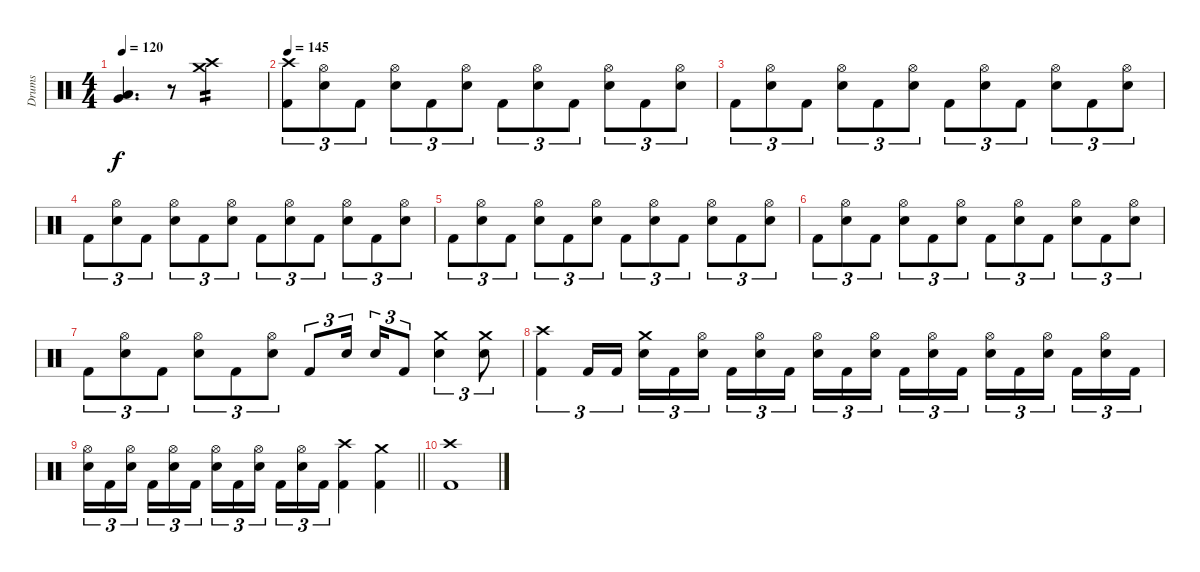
\track ("Drums" "Drums") {instrument percussion}
\staff {score}
\articulation defaults
\ts (4 4)
\tempo 120
\clef neutral
\ks c
("Low Tom (hit)" "Very Low Tom (hit)").4{d dy f} r.8{volume 0} ("Crash high (hit)" "Crash medium (hit)").2{tp 2 volume 15} |
\tempo 145
("Crash high (hit)" "Kick (hit) 2").8{tu (3 2)} ("Hi-Hat (open)" "Electric Snare (hit)").8{tu (3 2)} "Kick (hit) 2".8{tu (3 2)} ("Hi-Hat (open)" "Electric Snare (hit)").8{tu (3 2)} "Kick (hit) 2".8{tu (3 2)} ("Hi-Hat (open)" "Electric Snare (hit)").8{tu (3 2)} "Kick (hit) 2".8{tu (3 2)} ("Hi-Hat (open)" "Electric Snare (hit)").8{tu (3 2)} "Kick (hit) 2".8{tu (3 2)} ("Hi-Hat (open)" "Electric Snare (hit)").8{tu (3 2)} "Kick (hit) 2".8{tu (3 2)} ("Hi-Hat (open)" "Electric Snare (hit)").8{tu (3 2)} |
"Kick (hit) 2".8{tu (3 2)} ("Hi-Hat (open)" "Electric Snare (hit)").8{tu (3 2)} "Kick (hit) 2".8{tu (3 2)} ("Hi-Hat (open)" "Electric Snare (hit)").8{tu (3 2)} "Kick (hit) 2".8{tu (3 2)} ("Hi-Hat (open)" "Electric Snare (hit)").8{tu (3 2)} "Kick (hit) 2".8{tu (3 2)} ("Hi-Hat (open)" "Electric Snare (hit)").8{tu (3 2)} "Kick (hit) 2".8{tu (3 2)} ("Hi-Hat (open)" "Electric Snare (hit)").8{tu (3 2)} "Kick (hit) 2".8{tu (3 2)} ("Hi-Hat (open)" "Electric Snare (hit)").8{tu (3 2)} |
"Kick (hit) 2".8{tu (3 2)} ("Hi-Hat (open)" "Electric Snare (hit)").8{tu (3 2)} "Kick (hit) 2".8{tu (3 2)} ("Hi-Hat (open)" "Electric Snare (hit)").8{tu (3 2)} "Kick (hit) 2".8{tu (3 2)} ("Hi-Hat (open)" "Electric Snare (hit)").8{tu (3 2)} "Kick (hit) 2".8{tu (3 2)} ("Hi-Hat (open)" "Electric Snare (hit)").8{tu (3 2)} "Kick (hit) 2".8{tu (3 2)} ("Hi-Hat (open)" "Electric Snare (hit)").8{tu (3 2)} "Kick (hit) 2".8{tu (3 2)} ("Hi-Hat (open)" "Electric Snare (hit)").8{tu (3 2)} |
"Kick (hit) 2".8{tu (3 2)} ("Hi-Hat (open)" "Electric Snare (hit)").8{tu (3 2)} "Kick (hit) 2".8{tu (3 2)} ("Hi-Hat (open)" "Electric Snare (hit)").8{tu (3 2)} "Kick (hit) 2".8{tu (3 2)} ("Hi-Hat (open)" "Electric Snare (hit)").8{tu (3 2)} "Kick (hit) 2".8{tu (3 2)} ("Hi-Hat (open)" "Electric Snare (hit)").8{tu (3 2)} "Kick (hit) 2".8{tu (3 2)} ("Hi-Hat (open)" "Electric Snare (hit)").8{tu (3 2)} "Kick (hit) 2".8{tu (3 2)} ("Hi-Hat (open)" "Electric Snare (hit)").8{tu (3 2)} |
"Kick (hit) 2".8{tu (3 2)} ("Hi-Hat (open)" "Electric Snare (hit)").8{tu (3 2)} "Kick (hit) 2".8{tu (3 2)} ("Hi-Hat (open)" "Electric Snare (hit)").8{tu (3 2)} "Kick (hit) 2".8{tu (3 2)} ("Hi-Hat (open)" "Electric Snare (hit)").8{tu (3 2)} "Kick (hit) 2".8{tu (3 2)} ("Hi-Hat (open)" "Electric Snare (hit)").8{tu (3 2)} "Kick (hit) 2".8{tu (3 2)} ("Hi-Hat (open)" "Electric Snare (hit)").8{tu (3 2)} "Kick (hit) 2".8{tu (3 2)} ("Hi-Hat (open)" "Electric Snare (hit)").8{tu (3 2)} |
"Kick (hit) 2".8{tu (3 2)} ("Hi-Hat (open)" "Electric Snare (hit)").8{tu (3 2)} "Kick (hit) 2".8{tu (3 2)} ("Hi-Hat (open)" "Electric Snare (hit)").8{tu (3 2)} "Kick (hit) 2".8{tu (3 2)} ("Hi-Hat (open)" "Electric Snare (hit)").8{tu (3 2)} "Kick (hit) 2".8{tu (3 2)} "Electric Snare (hit)".16{tu (3 2) beam splitsecondary} "Electric Snare (hit)".16{tu (3 2)} "Kick (hit) 2".8{tu (3 2)} ("Crash medium (hit)" "Electric Snare (hit)").4{tu (3 2)} ("Crash medium (hit)" "Electric Snare (hit)").8{tu (3 2)} |
("Crash high (hit)" "Kick (hit) 2").4{tu (3 2)} "Kick (hit) 2".16{tu (3 2)} "Kick (hit) 2".16{tu (3 2)} ("Crash medium (hit)" "Electric Snare (hit)").16{tu (3 2)} "Kick (hit) 2".16{tu (3 2)} ("Hi-Hat (open)" "Electric Snare (hit)").16{tu (3 2) beam splitsecondary} "Kick (hit) 2".16{tu (3 2)} ("Hi-Hat (open)" "Electric Snare (hit)").16{tu (3 2)} "Kick (hit) 2".16{tu (3 2)} ("Hi-Hat (open)" "Electric Snare (hit)").16{tu (3 2)} "Kick (hit) 2".16{tu (3 2)} ("Hi-Hat (open)" "Electric Snare (hit)").16{tu (3 2) beam splitsecondary} "Kick (hit) 2".16{tu (3 2)} ("Hi-Hat (open)" "Electric Snare (hit)").16{tu (3 2)} "Kick (hit) 2".16{tu (3 2)} ("Hi-Hat (open)" "Electric Snare (hit)").16{tu (3 2)} "Kick (hit) 2".16{tu (3 2)} ("Hi-Hat (open)" "Electric Snare (hit)").16{tu (3 2) beam splitsecondary} "Kick (hit) 2".16{tu (3 2)} ("Hi-Hat (open)" "Electric Snare (hit)").16{tu (3 2)} "Kick (hit) 2".16{tu (3 2)} |
\barLineRight lightlight
("Hi-Hat (open)" "Electric Snare (hit)").16{tu (3 2)} "Kick (hit) 2".16{tu (3 2)} ("Hi-Hat (open)" "Electric Snare (hit)").16{tu (3 2) beam splitsecondary} "Kick (hit) 2".16{tu (3 2)} ("Hi-Hat (open)" "Electric Snare (hit)").16{tu (3 2)} "Kick (hit) 2".16{tu (3 2)} ("Hi-Hat (open)" "Electric Snare (hit)").16{tu (3 2)} "Kick (hit) 2".16{tu (3 2)} ("Hi-Hat (open)" "Electric Snare (hit)").16{tu (3 2) beam splitsecondary} "Kick (hit) 2".16{tu (3 2)} ("Hi-Hat (open)" "Electric Snare (hit)").16{tu (3 2)} "Kick (hit) 2".16{tu (3 2)} ("Crash high (hit)" "Kick (hit) 2").4 ("Crash medium (hit)" "Kick (hit) 2").4 |
("Crash high (hit)" "Kick (hit) 2").1
